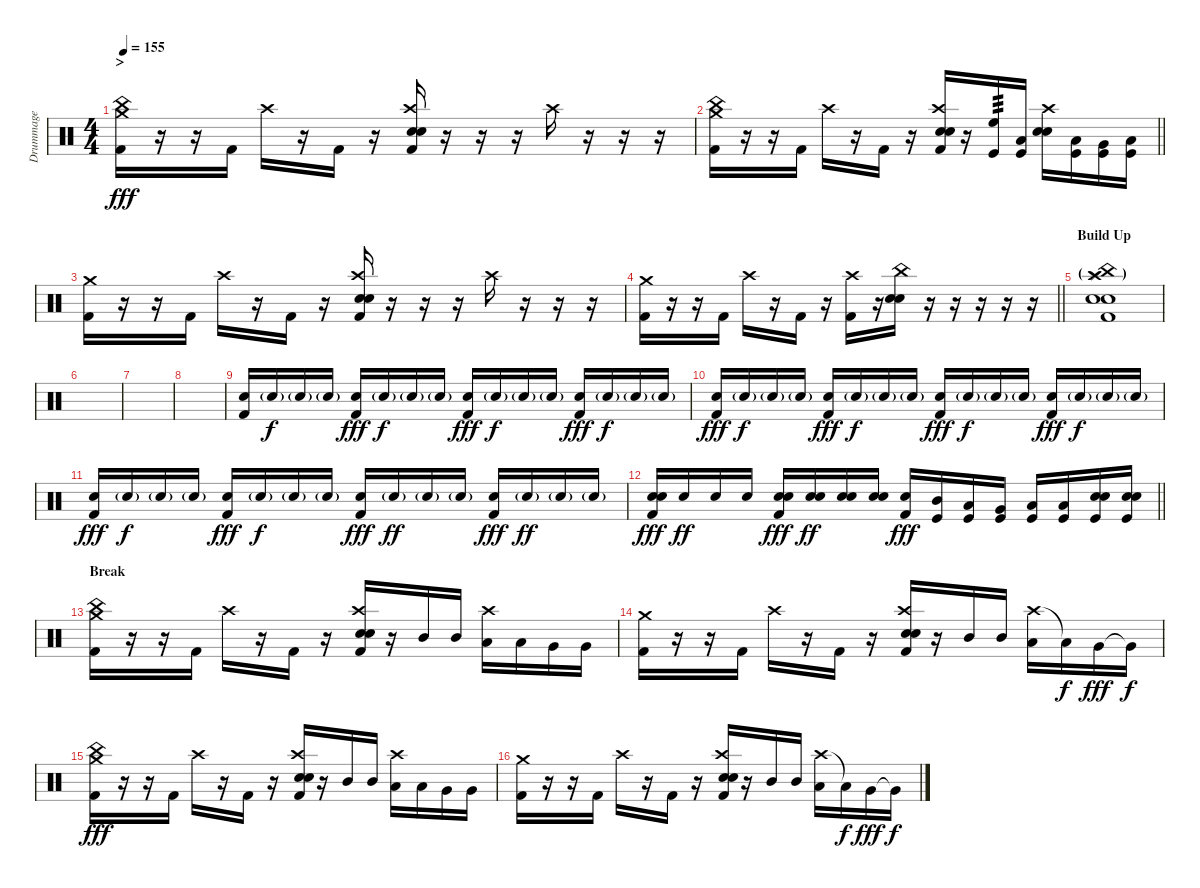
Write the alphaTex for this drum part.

\track ("Drummage" "Drummage") {instrument percussion}
\staff {score}
\articulation defaults
\ts (4 4)
\section ("" ">")
\tempo 155
\clef neutral
\ks c
("China (hit)" "Crash medium (hit)" "Kick (hit) 2").16{dy fff} r.16 r.16 "Kick (hit) 2".16 "Crash high (hit)".16 r.16 "Kick (hit) 2".16 r.16 ("Crash high (hit)" "Snare (hit) 2" "Electric Snare (hit)" "Kick (hit) 2").16 r.16 r.16 r.16 "Crash high (hit)".16 r.16 r.16 r.16 |
\barLineRight lightlight
("China (hit)" "Crash medium (hit)" "Kick (hit) 2").16 r.16 r.16 "Kick (hit) 2".16 "Crash high (hit)".16 r.16 "Kick (hit) 2".16 r.16 ("Crash high (hit)" "Snare (hit) 2" "Electric Snare (hit)" "Kick (hit) 2").16 r.16 ("High Floor Tom (hit)" "Kick (hit)").16{tp 3} ("Low Tom (hit)" "Kick (hit)").16 ("Crash high (hit)" "Electric Snare (hit)" "Snare (hit) 2").16 ("Low Tom (hit)" "Kick (hit)").16 ("Very Low Tom (hit)" "Kick (hit)").16 ("Low Floor Tom (hit)" "Kick (hit)").16 |
("Crash medium (hit)" "Kick (hit) 2").16 r.16 r.16 "Kick (hit) 2".16 "Crash high (hit)".16 r.16 "Kick (hit) 2".16 r.16 ("Crash high (hit)" "Snare (hit) 2" "Electric Snare (hit)" "Kick (hit) 2").16 r.16 r.16 r.16 "Crash high (hit)".16 r.16 r.16 r.16 |
\barLineRight lightlight
("Crash medium (hit)" "Kick (hit) 2").16 r.16 r.16 "Kick (hit) 2".16 "Crash high (hit)".16 r.16 "Kick (hit) 2".16 r.16 ("Crash high (hit)" "Kick (hit) 2").16 r.16 ("China (hit)" "Snare (hit) 2" "Electric Snare (hit)").16 r.16 r.16 r.16 r.16 r.16 |
\section ("" "Build Up")
("Crash high (hit)"{g} "China (hit)"{g} "Splash (hit)"{g} "Electric Snare (hit)" "Snare (hit) 2" "Kick (hit) 2").1 |
|
|
|
("Electric Snare (hit)" "Kick (hit) 2").16 "Electric Snare (hit)"{g}.16{dy f} "Electric Snare (hit)"{g}.16 "Electric Snare (hit)"{g}.16 ("Electric Snare (hit)" "Kick (hit) 2").16{dy fff} "Electric Snare (hit)"{g}.16{dy f} "Electric Snare (hit)"{g}.16 "Electric Snare (hit)"{g}.16 ("Electric Snare (hit)" "Kick (hit) 2").16{dy fff} "Electric Snare (hit)"{g}.16{dy f} "Electric Snare (hit)"{g}.16 "Electric Snare (hit)"{g}.16 ("Electric Snare (hit)" "Kick (hit) 2").16{dy fff} "Electric Snare (hit)"{g}.16{dy f} "Electric Snare (hit)"{g}.16 "Electric Snare (hit)"{g}.16 |
("Electric Snare (hit)" "Kick (hit) 2").16{dy fff} "Electric Snare (hit)"{g}.16{dy f} "Electric Snare (hit)"{g}.16 "Electric Snare (hit)"{g}.16 ("Electric Snare (hit)" "Kick (hit) 2").16{dy fff} "Electric Snare (hit)"{g}.16{dy f} "Electric Snare (hit)"{g}.16 "Electric Snare (hit)"{g}.16 ("Electric Snare (hit)" "Kick (hit) 2").16{dy fff} "Electric Snare (hit)"{g}.16{dy f} "Electric Snare (hit)"{g}.16 "Electric Snare (hit)"{g}.16 ("Electric Snare (hit)" "Kick (hit) 2").16{dy fff} "Electric Snare (hit)"{g}.16{dy f} "Electric Snare (hit)"{g}.16 "Electric Snare (hit)"{g}.16 |
("Electric Snare (hit)" "Kick (hit) 2").16{dy fff} "Electric Snare (hit)"{g}.16{dy f} "Electric Snare (hit)"{g}.16 "Electric Snare (hit)"{g}.16 ("Electric Snare (hit)" "Kick (hit) 2").16{dy fff} "Electric Snare (hit)"{g}.16{dy f} "Electric Snare (hit)"{g}.16 "Electric Snare (hit)"{g}.16 ("Electric Snare (hit)" "Kick (hit) 2").16{dy fff} "Electric Snare (hit)"{g}.16{dy ff} "Electric Snare (hit)"{g}.16 "Electric Snare (hit)"{g}.16 ("Electric Snare (hit)" "Kick (hit) 2").16{dy fff} "Electric Snare (hit)"{g}.16{dy ff} "Electric Snare (hit)"{g}.16 "Electric Snare (hit)"{g}.16 |
\barLineRight lightlight
("Snare (hit) 2" "Electric Snare (hit)" "Kick (hit) 2").16{dy fff} "Electric Snare (hit)".16{dy ff} "Electric Snare (hit)".16 "Electric Snare (hit)".16 ("Snare (hit) 2" "Electric Snare (hit)" "Kick (hit) 2").16{dy fff} ("Snare (hit) 2" "Electric Snare (hit)").16{dy ff} ("Snare (hit) 2" "Electric Snare (hit)").16 ("Snare (hit) 2" "Electric Snare (hit)").16 ("Electric Snare (hit)" "Kick (hit) 2").16{dy fff} ("Mid Tom (hit)" "Kick (hit)").16 ("Low Tom (hit)" "Kick (hit)").16 ("Very Low Tom (hit)" "Kick (hit)").16 ("Low Floor Tom (hit)" "Kick (hit)").16 ("Low Floor Tom (hit)" "Kick (hit)").16 ("Snare (hit) 2" "Electric Snare (hit)" "Kick (hit)").16 ("Snare (hit) 2" "Electric Snare (hit)" "Kick (hit)").16 |
\section ("" "Break")
("China (hit)" "Crash medium (hit)" "Kick (hit) 2").16 r.16 r.16 "Kick (hit) 2".16 "Crash high (hit)".16 r.16 "Kick (hit) 2".16 r.16 ("Crash high (hit)" "Snare (hit) 2" "Electric Snare (hit)" "Kick (hit) 2").16 r.16 "Mid Tom (hit)".16 "Mid Tom (hit)".16 ("Crash high (hit)" "Low Tom (hit)").16 "Low Tom (hit)".16 "Very Low Tom (hit)".16 "Very Low Tom (hit)".16 |
("Crash medium (hit)" "Kick (hit) 2").16 r.16 r.16 "Kick (hit) 2".16 "Crash high (hit)".16 r.16 "Kick (hit) 2".16 r.16 ("Crash high (hit)" "Snare (hit) 2" "Electric Snare (hit)" "Kick (hit) 2").16 r.16 "Mid Tom (hit)".16 "Mid Tom (hit)".16 ("Crash high (hit)" "Low Tom (hit)").16 "Low Tom (hit)"{t}.16{dy f} "Very Low Tom (hit)".16{dy fff} "Very Low Tom (hit)"{t}.16{dy f} |
("China (hit)" "Crash medium (hit)" "Kick (hit) 2").16{dy fff} r.16 r.16 "Kick (hit) 2".16 "Crash high (hit)".16 r.16 "Kick (hit) 2".16 r.16 ("Crash high (hit)" "Snare (hit) 2" "Electric Snare (hit)" "Kick (hit) 2").16 r.16 "Mid Tom (hit)".16 "Mid Tom (hit)".16 ("Crash high (hit)" "Low Tom (hit)").16 "Low Tom (hit)".16 "Very Low Tom (hit)".16 "Very Low Tom (hit)".16 |
("Crash medium (hit)" "Kick (hit) 2").16 r.16 r.16 "Kick (hit) 2".16 "Crash high (hit)".16 r.16 "Kick (hit) 2".16 r.16 ("Crash high (hit)" "Snare (hit) 2" "Electric Snare (hit)" "Kick (hit) 2").16 r.16 "Mid Tom (hit)".16 "Mid Tom (hit)".16 ("Crash high (hit)" "Low Tom (hit)").16 "Low Tom (hit)"{t}.16{dy f} "Very Low Tom (hit)".16{dy fff} "Very Low Tom (hit)"{t}.16{dy f}
